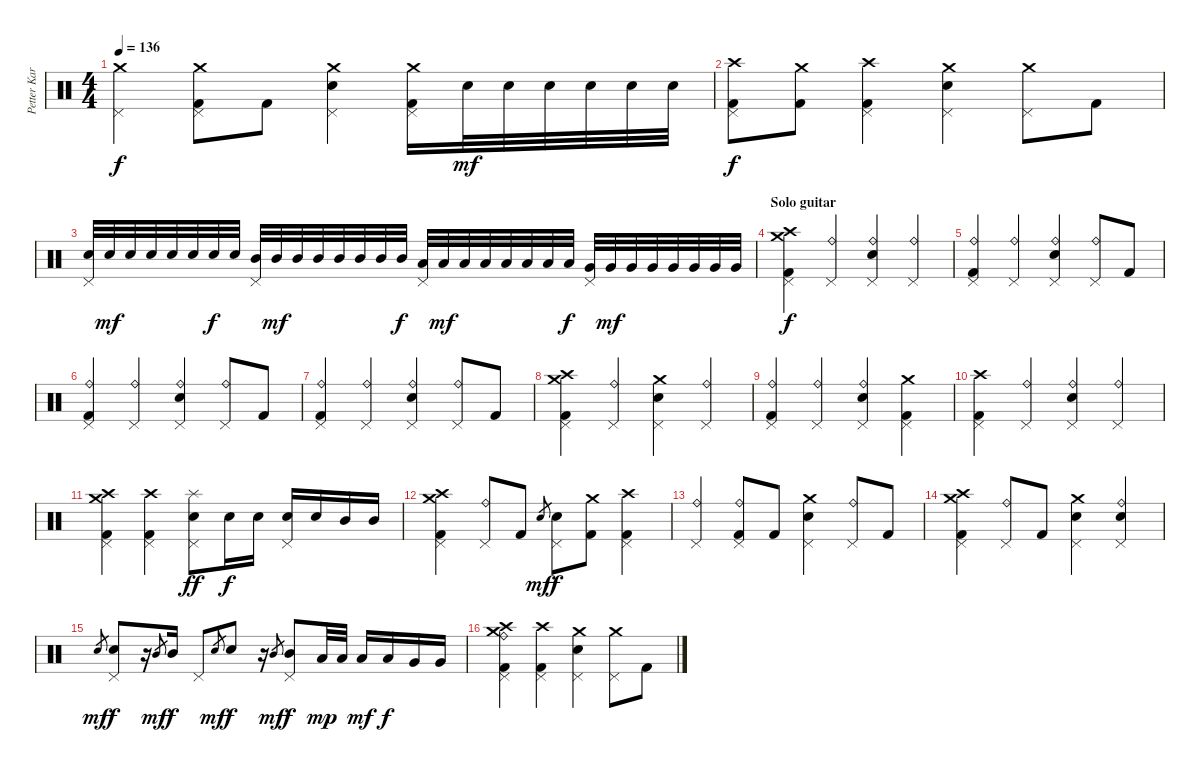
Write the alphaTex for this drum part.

\track ("Petter Karlsson" "Petter Kar") {instrument percussion}
\staff {score}
\articulation defaults
\ts (4 4)
\tempo 136
\clef neutral
\ks c
("Crash medium (hit)" "Pedal Hi-Hat (hit)").4{dy f} ("Crash medium (hit)" "Pedal Hi-Hat (hit)" "Kick (hit) 2").8 "Kick (hit) 2".8 ("Crash medium (hit)" "Snare (hit) 2" "Pedal Hi-Hat (hit)").4 ("Crash medium (hit)" "Pedal Hi-Hat (hit)" "Kick (hit) 2").16 "Snare (hit) 2".32{dy mf} "Snare (hit) 2".32 "Snare (hit) 2".32 "Snare (hit) 2".32 "Snare (hit) 2".32 "Snare (hit) 2".32 |
("Crash high (hit)" "Pedal Hi-Hat (hit)" "Kick (hit) 2").8{dy f} ("Crash medium (hit)" "Kick (hit) 2").8 ("Crash high (hit)" "Pedal Hi-Hat (hit)" "Kick (hit) 2").4 ("Crash medium (hit)" "Snare (hit) 2" "Pedal Hi-Hat (hit)").4 ("Crash medium (hit)" "Pedal Hi-Hat (hit)").8 "Kick (hit) 2".8 |
("Snare (hit) 2" "Pedal Hi-Hat (hit)").32 "Snare (hit) 2".32{dy mf} "Snare (hit) 2".32 "Snare (hit) 2".32 "Snare (hit) 2".32 "Snare (hit) 2".32 "Snare (hit) 2".32{dy f} "Snare (hit) 2".32 ("Mid Tom (hit)" "Pedal Hi-Hat (hit)").32 "Mid Tom (hit)".32{dy mf} "Mid Tom (hit)".32 "Mid Tom (hit)".32 "Mid Tom (hit)".32 "Mid Tom (hit)".32 "Mid Tom (hit)".32 "Mid Tom (hit)".32{dy f} ("Low Tom (hit)" "Pedal Hi-Hat (hit)").32 "Low Tom (hit)".32{dy mf} "Low Tom (hit)".32 "Low Tom (hit)".32 "Low Tom (hit)".32 "Low Tom (hit)".32 "Low Tom (hit)".32 "Low Tom (hit)".32{dy f} ("Very Low Tom (hit)" "Pedal Hi-Hat (hit)").32 "Very Low Tom (hit)".32{dy mf} "Very Low Tom (hit)".32 "Very Low Tom (hit)".32 "Very Low Tom (hit)".32 "Very Low Tom (hit)".32 "Very Low Tom (hit)".32 "Very Low Tom (hit)".32 |
\section ("" "Solo guitar")
("Crash high (hit)" "Crash medium (hit)" "Pedal Hi-Hat (hit)" "Kick (hit) 2").4{dy f} ("Ride (bell)" "Pedal Hi-Hat (hit)").4 ("Ride (bell)" "Snare (hit) 2" "Pedal Hi-Hat (hit)").4 ("Ride (bell)" "Pedal Hi-Hat (hit)").4 |
("Ride (bell)" "Pedal Hi-Hat (hit)" "Kick (hit) 2").4 ("Ride (bell)" "Pedal Hi-Hat (hit)").4 ("Ride (bell)" "Snare (hit) 2" "Pedal Hi-Hat (hit)").4 ("Ride (bell)" "Pedal Hi-Hat (hit)").8 "Kick (hit) 2".8 |
("Ride (bell)" "Pedal Hi-Hat (hit)" "Kick (hit) 2").4 ("Ride (bell)" "Pedal Hi-Hat (hit)").4 ("Ride (bell)" "Snare (hit) 2" "Pedal Hi-Hat (hit)").4 ("Ride (bell)" "Pedal Hi-Hat (hit)").8 "Kick (hit) 2".8 |
("Ride (bell)" "Pedal Hi-Hat (hit)" "Kick (hit) 2").4 ("Ride (bell)" "Pedal Hi-Hat (hit)").4 ("Ride (bell)" "Snare (hit) 2" "Pedal Hi-Hat (hit)").4 ("Ride (bell)" "Pedal Hi-Hat (hit)").8 "Kick (hit) 2".8 |
("Crash high (hit)" "Crash medium (hit)" "Pedal Hi-Hat (hit)" "Kick (hit) 2").4 ("Ride (bell)" "Pedal Hi-Hat (hit)").4 ("Crash medium (hit)" "Snare (hit) 2" "Pedal Hi-Hat (hit)").4 ("Ride (bell)" "Pedal Hi-Hat (hit)").4 |
("Ride (bell)" "Pedal Hi-Hat (hit)" "Kick (hit) 2").4 ("Ride (bell)" "Pedal Hi-Hat (hit)").4 ("Ride (bell)" "Snare (hit) 2" "Pedal Hi-Hat (hit)").4 ("Crash medium (hit)" "Pedal Hi-Hat (hit)" "Kick (hit) 2").4 |
("Crash high (hit)" "Pedal Hi-Hat (hit)" "Kick (hit) 2").4 ("Ride (bell)" "Pedal Hi-Hat (hit)").4 ("Ride (bell)" "Snare (hit) 2" "Pedal Hi-Hat (hit)").4 ("Ride (bell)" "Pedal Hi-Hat (hit)").4 |
("Crash high (hit)" "Crash medium (hit)" "Pedal Hi-Hat (hit)" "Kick (hit) 2").4 ("Crash high (hit)" "Pedal Hi-Hat (hit)" "Kick (hit) 2").4 ("Splash (hit)" "Snare (hit) 2" "Pedal Hi-Hat (hit)").8{dy ff} "Snare (hit) 2".16{dy f} "Snare (hit) 2".16 ("Snare (hit) 2" "Pedal Hi-Hat (hit)").16 "Snare (hit) 2".16 "Mid Tom (hit)".16 "Mid Tom (hit)".16 |
("Crash high (hit)" "Crash medium (hit)" "Pedal Hi-Hat (hit)" "Kick (hit) 2").4 ("Ride (bell)" "Pedal Hi-Hat (hit)").8 "Kick (hit) 2".8 "Snare (hit) 2".8{gr dy mf} ("Snare (hit) 2" "Pedal Hi-Hat (hit)").8{dy f} ("Crash medium (hit)" "Kick (hit) 2").8 ("Crash high (hit)" "Pedal Hi-Hat (hit)" "Kick (hit) 2").4 |
("Ride (bell)" "Pedal Hi-Hat (hit)").4 ("Ride (bell)" "Pedal Hi-Hat (hit)" "Kick (hit) 2").8 "Kick (hit) 2".8 ("Crash medium (hit)" "Snare (hit) 2" "Pedal Hi-Hat (hit)").4 ("Ride (bell)" "Pedal Hi-Hat (hit)").8 "Kick (hit) 2".8 |
("Crash high (hit)" "Crash medium (hit)" "Pedal Hi-Hat (hit)" "Kick (hit) 2").4 ("Ride (bell)" "Pedal Hi-Hat (hit)").8 "Kick (hit) 2".8 ("Crash medium (hit)" "Snare (hit) 2" "Pedal Hi-Hat (hit)").4 ("Ride (bell)" "Snare (hit) 2" "Pedal Hi-Hat (hit)").4 |
"Snare (hit) 2".8{gr dy mf} ("Snare (hit) 2" "Pedal Hi-Hat (hit)").8{dy f} r.16 "Mid Tom (hit)".8{gr dy mf} "Mid Tom (hit)".16{dy f} "Pedal Hi-Hat (hit)".8 "Snare (hit) 2".8{gr dy mf} "Snare (hit) 2".8{dy f} r.16 "Mid Tom (hit)".8{gr dy mf} ("Mid Tom (hit)" "Pedal Hi-Hat (hit)").8{dy f} "Low Tom (hit)".32{dy mp} "Low Tom (hit)".32 "Low Tom (hit)".16{dy mf} "Low Tom (hit)".16{dy f} "Very Low Tom (hit)".16 "Very Low Tom (hit)".16 |
("Crash high (hit)" "Crash medium (hit)" "Ride (bell)" "Pedal Hi-Hat (hit)" "Kick (hit) 2").4 ("Crash high (hit)" "Pedal Hi-Hat (hit)" "Kick (hit) 2").4 ("Crash medium (hit)" "Snare (hit) 2" "Pedal Hi-Hat (hit)").4 ("Crash medium (hit)" "Pedal Hi-Hat (hit)").8 "Kick (hit) 2".8
